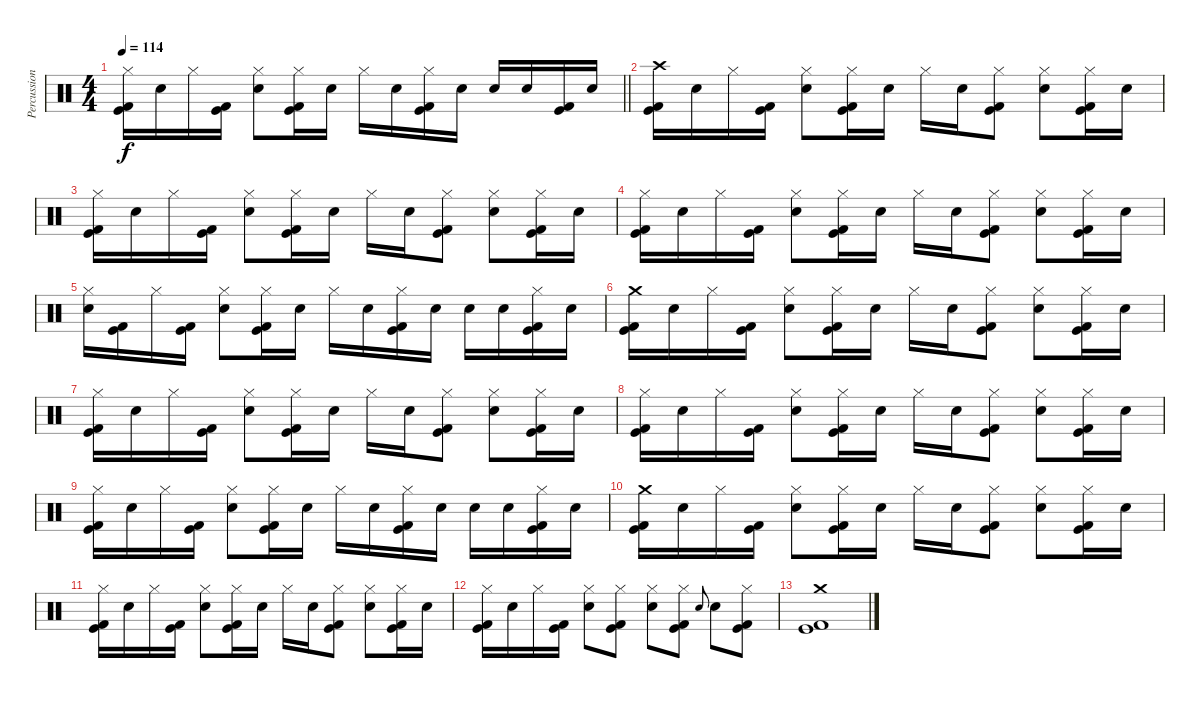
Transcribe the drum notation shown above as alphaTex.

\track ("Percussion" "Percussion") {instrument percussion}
\staff {score}
\articulation defaults
\ts (4 4)
\tempo 114
\clef neutral
\barLineRight lightlight
\ks c
("Hi-Hat (closed)" "Kick (hit)" "Kick (hit) 2").16{dy f} "Electric Snare (hit)".16 "Hi-Hat (closed)".16 ("Kick (hit)" "Kick (hit) 2").16 ("Hi-Hat (closed)" "Electric Snare (hit)").8 ("Hi-Hat (closed)" "Kick (hit)" "Kick (hit) 2").16 "Electric Snare (hit)".16 "Hi-Hat (closed)".16 "Electric Snare (hit)".16 ("Hi-Hat (closed)" "Kick (hit)" "Kick (hit) 2").16 "Electric Snare (hit)".16 "Electric Snare (hit)".16 "Electric Snare (hit)".16 ("Kick (hit)" "Kick (hit) 2").16 "Electric Snare (hit)".16 |
\section ("" "")
("Crash high (hit)" "Kick (hit)" "Kick (hit) 2").16 "Electric Snare (hit)".16 "Hi-Hat (closed)".16 ("Kick (hit)" "Kick (hit) 2").16 ("Hi-Hat (closed)" "Electric Snare (hit)").8 ("Hi-Hat (closed)" "Kick (hit)" "Kick (hit) 2").16 "Electric Snare (hit)".16 "Hi-Hat (closed)".16 "Electric Snare (hit)".16 ("Hi-Hat (closed)" "Kick (hit)" "Kick (hit) 2").8 ("Hi-Hat (closed)" "Electric Snare (hit)").8 ("Hi-Hat (closed)" "Kick (hit)" "Kick (hit) 2").16 "Electric Snare (hit)".16 |
("Hi-Hat (closed)" "Kick (hit)" "Kick (hit) 2").16 "Electric Snare (hit)".16 "Hi-Hat (closed)".16 ("Kick (hit)" "Kick (hit) 2").16 ("Hi-Hat (closed)" "Electric Snare (hit)").8 ("Hi-Hat (closed)" "Kick (hit)" "Kick (hit) 2").16 "Electric Snare (hit)".16 "Hi-Hat (closed)".16 "Electric Snare (hit)".16 ("Hi-Hat (closed)" "Kick (hit)" "Kick (hit) 2").8 ("Hi-Hat (closed)" "Electric Snare (hit)").8 ("Hi-Hat (closed)" "Kick (hit)" "Kick (hit) 2").16 "Electric Snare (hit)".16 |
("Hi-Hat (closed)" "Kick (hit)" "Kick (hit) 2").16 "Electric Snare (hit)".16 "Hi-Hat (closed)".16 ("Kick (hit)" "Kick (hit) 2").16 ("Hi-Hat (closed)" "Electric Snare (hit)").8 ("Hi-Hat (closed)" "Kick (hit)" "Kick (hit) 2").16 "Electric Snare (hit)".16 "Hi-Hat (closed)".16 "Electric Snare (hit)".16 ("Hi-Hat (closed)" "Kick (hit)" "Kick (hit) 2").8 ("Hi-Hat (closed)" "Electric Snare (hit)").8 ("Hi-Hat (closed)" "Kick (hit)" "Kick (hit) 2").16 "Electric Snare (hit)".16 |
("Hi-Hat (closed)" "Electric Snare (hit)").16 ("Kick (hit)" "Kick (hit) 2").16 "Hi-Hat (closed)".16 ("Kick (hit)" "Kick (hit) 2").16 ("Hi-Hat (closed)" "Electric Snare (hit)").8 ("Hi-Hat (closed)" "Kick (hit)" "Kick (hit) 2").16 "Electric Snare (hit)".16 "Hi-Hat (closed)".16 "Electric Snare (hit)".16 ("Hi-Hat (closed)" "Kick (hit)" "Kick (hit) 2").16 "Electric Snare (hit)".16 "Electric Snare (hit)".16 "Electric Snare (hit)".16 ("Hi-Hat (closed)" "Kick (hit)" "Kick (hit) 2").16 "Electric Snare (hit)".16 |
("Crash medium (hit)" "Kick (hit)" "Kick (hit) 2").16 "Electric Snare (hit)".16 "Hi-Hat (closed)".16 ("Kick (hit)" "Kick (hit) 2").16 ("Hi-Hat (closed)" "Electric Snare (hit)").8 ("Hi-Hat (closed)" "Kick (hit)" "Kick (hit) 2").16 "Electric Snare (hit)".16 "Hi-Hat (closed)".16 "Electric Snare (hit)".16 ("Hi-Hat (closed)" "Kick (hit)" "Kick (hit) 2").8 ("Hi-Hat (closed)" "Electric Snare (hit)").8 ("Hi-Hat (closed)" "Kick (hit)" "Kick (hit) 2").16 "Electric Snare (hit)".16 |
("Hi-Hat (closed)" "Kick (hit)" "Kick (hit) 2").16 "Electric Snare (hit)".16 "Hi-Hat (closed)".16 ("Kick (hit)" "Kick (hit) 2").16 ("Hi-Hat (closed)" "Electric Snare (hit)").8 ("Hi-Hat (closed)" "Kick (hit)" "Kick (hit) 2").16 "Electric Snare (hit)".16 "Hi-Hat (closed)".16 "Electric Snare (hit)".16 ("Hi-Hat (closed)" "Kick (hit)" "Kick (hit) 2").8 ("Hi-Hat (closed)" "Electric Snare (hit)").8 ("Hi-Hat (closed)" "Kick (hit)" "Kick (hit) 2").16 "Electric Snare (hit)".16 |
("Hi-Hat (closed)" "Kick (hit)" "Kick (hit) 2").16 "Electric Snare (hit)".16 "Hi-Hat (closed)".16 ("Kick (hit)" "Kick (hit) 2").16 ("Hi-Hat (closed)" "Electric Snare (hit)").8 ("Hi-Hat (closed)" "Kick (hit)" "Kick (hit) 2").16 "Electric Snare (hit)".16 "Hi-Hat (closed)".16 "Electric Snare (hit)".16 ("Hi-Hat (closed)" "Kick (hit)" "Kick (hit) 2").8 ("Hi-Hat (closed)" "Electric Snare (hit)").8 ("Hi-Hat (closed)" "Kick (hit)" "Kick (hit) 2").16 "Electric Snare (hit)".16 |
("Hi-Hat (closed)" "Kick (hit)" "Kick (hit) 2").16 "Electric Snare (hit)".16 "Hi-Hat (closed)".16 ("Kick (hit)" "Kick (hit) 2").16 ("Hi-Hat (closed)" "Electric Snare (hit)").8 ("Hi-Hat (closed)" "Kick (hit)" "Kick (hit) 2").16 "Electric Snare (hit)".16 "Hi-Hat (closed)".16 "Electric Snare (hit)".16 ("Hi-Hat (closed)" "Kick (hit)" "Kick (hit) 2").16 "Electric Snare (hit)".16 "Electric Snare (hit)".16 "Electric Snare (hit)".16 ("Hi-Hat (closed)" "Kick (hit)" "Kick (hit) 2").16 "Electric Snare (hit)".16 |
("Crash medium (hit)" "Kick (hit)" "Kick (hit) 2").16 "Electric Snare (hit)".16 "Hi-Hat (closed)".16 ("Kick (hit)" "Kick (hit) 2").16 ("Hi-Hat (closed)" "Electric Snare (hit)").8 ("Hi-Hat (closed)" "Kick (hit)" "Kick (hit) 2").16 "Electric Snare (hit)".16 "Hi-Hat (closed)".16 "Electric Snare (hit)".16 ("Hi-Hat (closed)" "Kick (hit)" "Kick (hit) 2").8 ("Hi-Hat (closed)" "Electric Snare (hit)").8 ("Hi-Hat (closed)" "Kick (hit)" "Kick (hit) 2").16 "Electric Snare (hit)".16 |
("Hi-Hat (closed)" "Kick (hit)" "Kick (hit) 2").16 "Electric Snare (hit)".16 "Hi-Hat (closed)".16 ("Kick (hit)" "Kick (hit) 2").16 ("Hi-Hat (closed)" "Electric Snare (hit)").8 ("Hi-Hat (closed)" "Kick (hit)" "Kick (hit) 2").16 "Electric Snare (hit)".16 "Hi-Hat (closed)".16 "Electric Snare (hit)".16 ("Hi-Hat (closed)" "Kick (hit)" "Kick (hit) 2").8 ("Hi-Hat (closed)" "Electric Snare (hit)").8 ("Hi-Hat (closed)" "Kick (hit)" "Kick (hit) 2").16 "Electric Snare (hit)".16 |
("Hi-Hat (closed)" "Kick (hit)" "Kick (hit) 2").16 "Electric Snare (hit)".16 "Hi-Hat (closed)".16 ("Kick (hit)" "Kick (hit) 2").16 ("Hi-Hat (closed)" "Electric Snare (hit)").8 ("Hi-Hat (closed)" "Kick (hit)" "Kick (hit) 2").8 ("Hi-Hat (closed)" "Electric Snare (hit)").8 ("Hi-Hat (closed)" "Kick (hit)" "Kick (hit) 2").8 "Electric Snare (hit)".8{gr onbeat} "Electric Snare (hit)".8 ("Hi-Hat (closed)" "Kick (hit)" "Kick (hit) 2").8 |
("Crash medium (hit)" "Kick (hit)" "Kick (hit) 2").1
